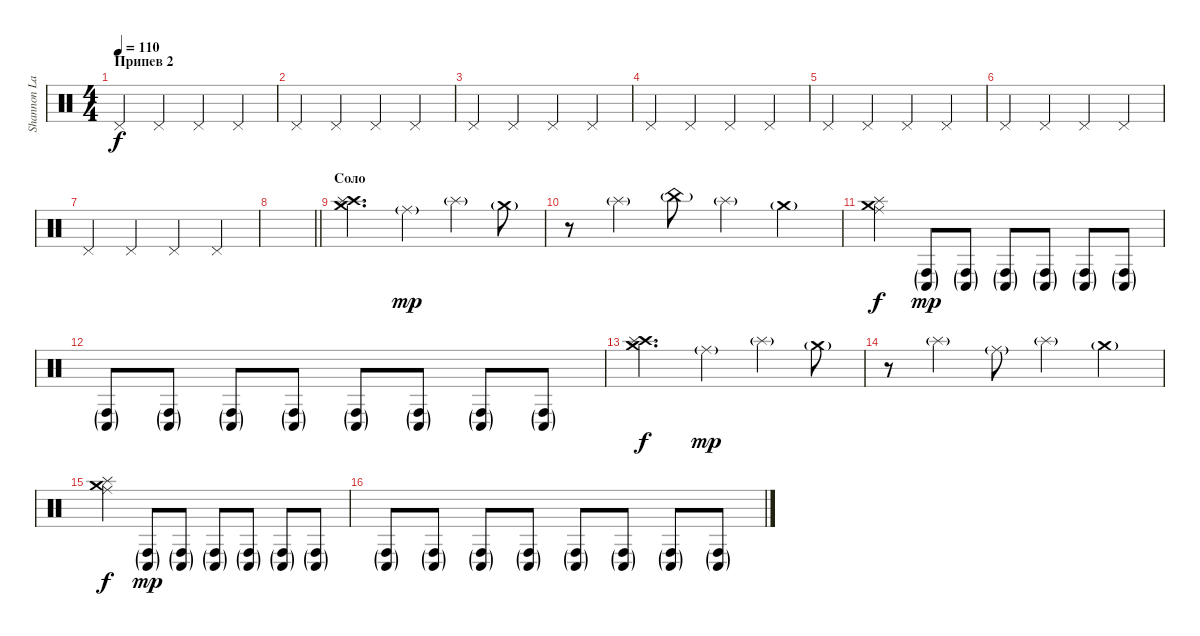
\track ("Shannon Larkin [Percussion 3]" "Shannon La") {instrument percussion}
\staff {score}
\articulation defaults
\ts (4 4)
\section ("" "Припев 2")
\tempo 110
\clef neutral
\ks c "Pedal Hi-Hat (hit)".4{dy f} "Pedal Hi-Hat (hit)".4 "Pedal Hi-Hat (hit)".4 "Pedal Hi-Hat (hit)".4
|
"Pedal Hi-Hat (hit)".4 "Pedal Hi-Hat (hit)".4 "Pedal Hi-Hat (hit)".4 "Pedal Hi-Hat (hit)".4 |
"Pedal Hi-Hat (hit)".4 "Pedal Hi-Hat (hit)".4 "Pedal Hi-Hat (hit)".4 "Pedal Hi-Hat (hit)".4 |
"Pedal Hi-Hat (hit)".4 "Pedal Hi-Hat (hit)".4 "Pedal Hi-Hat (hit)".4 "Pedal Hi-Hat (hit)".4 |
"Pedal Hi-Hat (hit)".4 "Pedal Hi-Hat (hit)".4 "Pedal Hi-Hat (hit)".4 "Pedal Hi-Hat (hit)".4 |
"Pedal Hi-Hat (hit)".4 "Pedal Hi-Hat (hit)".4 "Pedal Hi-Hat (hit)".4 "Pedal Hi-Hat (hit)".4 |
"Pedal Hi-Hat (hit)".4 "Pedal Hi-Hat (hit)".4 "Pedal Hi-Hat (hit)".4 "Pedal Hi-Hat (hit)".4 |
\barLineRight lightlight
|
\section ("" "Соло")
("Crash medium (hit)" "Crash high (hit)" "Splash (hit)").4{d} "Ride (middle)"{g}.4{dy mp} "Splash (hit)"{g}.4 "Crash medium (hit)"{g}.8 |
r.8 "Splash (hit)"{g}.4 "China (hit)"{g}.8 "Splash (hit)"{g}.4 "Crash medium (hit)"{g}.4 |
("Crash medium (hit)" "Ride (middle)" "Splash (hit)").4{dy f} ("Conga high (hit)"{g} "Conga low (hit)"{g}).8{bd 30 dy mp} ("Conga high (hit)"{g} "Conga low (hit)"{g}).8{bd 30} ("Conga high (hit)"{g} "Conga low (hit)"{g}).8{bd 30} ("Conga high (hit)"{g} "Conga low (hit)"{g}).8{bd 30} ("Conga high (hit)"{g} "Conga low (hit)"{g}).8{bd 30} ("Conga high (hit)"{g} "Conga low (hit)"{g}).8{bd 30} |
("Conga high (hit)"{g} "Conga low (hit)"{g}).8{bd 30} ("Conga high (hit)"{g} "Conga low (hit)"{g}).8{bd 30} ("Conga high (hit)"{g} "Conga low (hit)"{g}).8{bd 30} ("Conga high (hit)"{g} "Conga low (hit)"{g}).8{bd 30} ("Conga high (hit)"{g} "Conga low (hit)"{g}).8{bd 30} ("Conga high (hit)"{g} "Conga low (hit)"{g}).8{bd 30} ("Conga high (hit)"{g} "Conga low (hit)"{g}).8{bd 30} ("Conga high (hit)"{g} "Conga low (hit)"{g}).8{bd 30} |
("Crash medium (hit)" "Crash high (hit)" "Splash (hit)").4{d dy f} "Ride (middle)"{g}.4{dy mp} "Splash (hit)"{g}.4 "Crash medium (hit)"{g}.8 |
r.8 "Splash (hit)"{g}.4 "Ride (middle)"{g}.8 "Splash (hit)"{g}.4 "Crash medium (hit)"{g}.4 |
("Crash medium (hit)" "Ride (middle)" "Splash (hit)").4{dy f} ("Conga high (hit)"{g} "Conga low (hit)"{g}).8{bd 30 dy mp} ("Conga high (hit)"{g} "Conga low (hit)"{g}).8{bd 30} ("Conga high (hit)"{g} "Conga low (hit)"{g}).8{bd 30} ("Conga high (hit)"{g} "Conga low (hit)"{g}).8{bd 30} ("Conga high (hit)"{g} "Conga low (hit)"{g}).8{bd 30} ("Conga high (hit)"{g} "Conga low (hit)"{g}).8{bd 30} |
("Conga high (hit)"{g} "Conga low (hit)"{g}).8{bd 30} ("Conga high (hit)"{g} "Conga low (hit)"{g}).8{bd 30} ("Conga high (hit)"{g} "Conga low (hit)"{g}).8{bd 30} ("Conga high (hit)"{g} "Conga low (hit)"{g}).8{bd 30} ("Conga high (hit)"{g} "Conga low (hit)"{g}).8{bd 30} ("Conga high (hit)"{g} "Conga low (hit)"{g}).8{bd 30} ("Conga high (hit)"{g} "Conga low (hit)"{g}).8{bd 30} ("Conga high (hit)"{g} "Conga low (hit)"{g}).8{bd 30}
